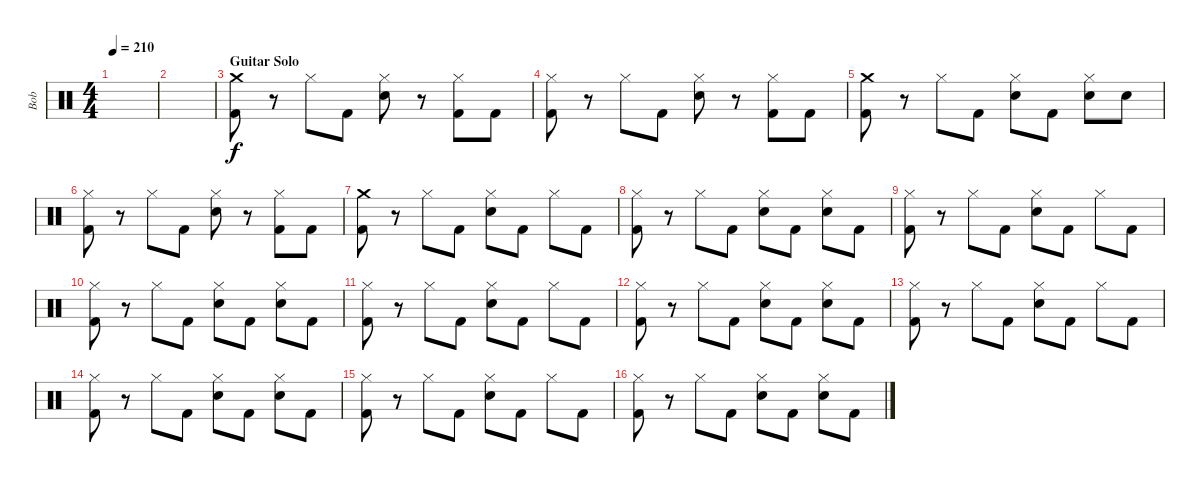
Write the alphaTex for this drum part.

\track ("Bob" "Bob") {instrument percussion}
\staff {score}
\articulation defaults
\ts (4 4)
\tempo 210
\clef neutral
\ks c
|
|
\section ("" "Guitar Solo")
("Crash medium (hit)" "Kick (hit) 2").8 r.8 "Hi-Hat (closed)".8 "Kick (hit) 2".8 ("Hi-Hat (closed)" "Electric Snare (hit)").8 r.8 ("Hi-Hat (closed)" "Kick (hit) 2").8 "Kick (hit) 2".8 |
("Hi-Hat (closed)" "Kick (hit) 2").8 r.8 "Hi-Hat (closed)".8 "Kick (hit) 2".8 ("Hi-Hat (closed)" "Electric Snare (hit)").8 r.8 ("Hi-Hat (closed)" "Kick (hit) 2").8 "Kick (hit) 2".8 |
("Crash medium (hit)" "Kick (hit) 2").8 r.8 "Hi-Hat (closed)".8 "Kick (hit) 2".8 ("Hi-Hat (closed)" "Electric Snare (hit)").8 "Kick (hit) 2".8 ("Hi-Hat (closed)" "Electric Snare (hit)").8 "Electric Snare (hit)".8 |
("Hi-Hat (closed)" "Kick (hit) 2").8 r.8 "Hi-Hat (closed)".8 "Kick (hit) 2".8 ("Hi-Hat (closed)" "Electric Snare (hit)").8 r.8 ("Hi-Hat (closed)" "Kick (hit) 2").8 "Kick (hit) 2".8 |
("Crash medium (hit)" "Kick (hit) 2").8 r.8 "Hi-Hat (closed)".8 "Kick (hit) 2".8 ("Hi-Hat (closed)" "Electric Snare (hit)").8 "Kick (hit) 2".8 "Hi-Hat (closed)".8 "Kick (hit) 2".8 |
("Hi-Hat (closed)" "Kick (hit) 2").8 r.8 "Hi-Hat (closed)".8 "Kick (hit) 2".8 ("Hi-Hat (closed)" "Electric Snare (hit)").8 "Kick (hit) 2".8 ("Hi-Hat (closed)" "Electric Snare (hit)").8 "Kick (hit) 2".8 |
("Hi-Hat (closed)" "Kick (hit) 2").8 r.8 "Hi-Hat (closed)".8 "Kick (hit) 2".8 ("Hi-Hat (closed)" "Electric Snare (hit)").8 "Kick (hit) 2".8 "Hi-Hat (closed)".8 "Kick (hit) 2".8 |
("Hi-Hat (closed)" "Kick (hit) 2").8 r.8 "Hi-Hat (closed)".8 "Kick (hit) 2".8 ("Hi-Hat (closed)" "Electric Snare (hit)").8 "Kick (hit) 2".8 ("Hi-Hat (closed)" "Electric Snare (hit)").8 "Kick (hit) 2".8 |
("Hi-Hat (closed)" "Kick (hit) 2").8 r.8 "Hi-Hat (closed)".8 "Kick (hit) 2".8 ("Hi-Hat (closed)" "Electric Snare (hit)").8 "Kick (hit) 2".8 "Hi-Hat (closed)".8 "Kick (hit) 2".8 |
("Hi-Hat (closed)" "Kick (hit) 2").8 r.8 "Hi-Hat (closed)".8 "Kick (hit) 2".8 ("Hi-Hat (closed)" "Electric Snare (hit)").8 "Kick (hit) 2".8 ("Hi-Hat (closed)" "Electric Snare (hit)").8 "Kick (hit) 2".8 |
("Hi-Hat (closed)" "Kick (hit) 2").8 r.8 "Hi-Hat (closed)".8 "Kick (hit) 2".8 ("Hi-Hat (closed)" "Electric Snare (hit)").8 "Kick (hit) 2".8 "Hi-Hat (closed)".8 "Kick (hit) 2".8 |
("Hi-Hat (closed)" "Kick (hit) 2").8 r.8 "Hi-Hat (closed)".8 "Kick (hit) 2".8 ("Hi-Hat (closed)" "Electric Snare (hit)").8 "Kick (hit) 2".8 ("Hi-Hat (closed)" "Electric Snare (hit)").8 "Kick (hit) 2".8 |
("Hi-Hat (closed)" "Kick (hit) 2").8 r.8 "Hi-Hat (closed)".8 "Kick (hit) 2".8 ("Hi-Hat (closed)" "Electric Snare (hit)").8 "Kick (hit) 2".8 "Hi-Hat (closed)".8 "Kick (hit) 2".8 |
("Hi-Hat (closed)" "Kick (hit) 2").8 r.8 "Hi-Hat (closed)".8 "Kick (hit) 2".8 ("Hi-Hat (closed)" "Electric Snare (hit)").8 "Kick (hit) 2".8 ("Hi-Hat (closed)" "Electric Snare (hit)").8 "Kick (hit) 2".8
